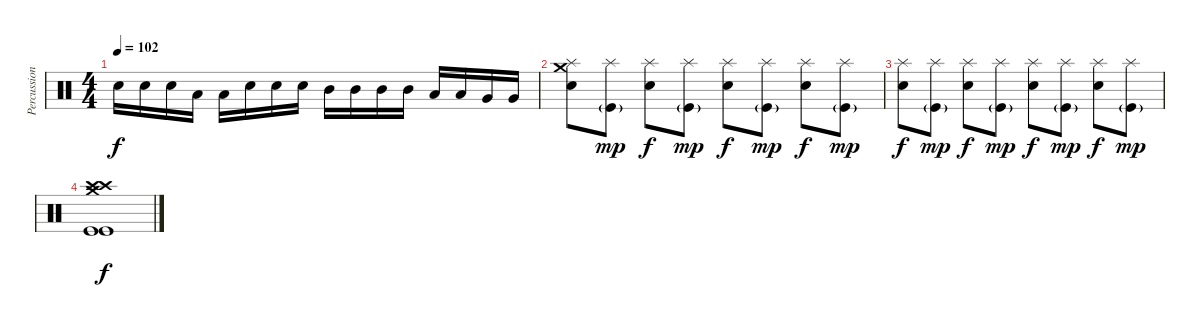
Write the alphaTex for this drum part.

\track ("Percussion" "Percussion") {instrument percussion}
\staff {score}
\articulation defaults
\ts (4 4)
\tempo 102
\clef neutral
\ks c "Snare (hit) 2".16{dy f} "Snare (hit) 2".16 "Snare (hit) 2".16 "Low Tom (hit)".16 "Low Tom (hit)".16 "Snare (hit) 2".16 "Snare (hit) 2".16 "Snare (hit) 2".16 "Mid Tom (hit)".16 "Mid Tom (hit)".16 "Mid Tom (hit)".16 "Mid Tom (hit)".16 "Low Tom (hit)".16 "Low Tom (hit)".16 "Very Low Tom (hit)".16 "Very Low Tom (hit)".16
|
("Splash (hit)" "Snare (hit) 2" "Crash medium (hit)").8 ("Splash (hit)" "Kick (hit)"{g}).8{dy mp} ("Splash (hit)" "Snare (hit) 2").8{dy f} ("Splash (hit)" "Kick (hit)"{g}).8{dy mp} ("Splash (hit)" "Snare (hit) 2").8{dy f} ("Splash (hit)" "Kick (hit)"{g}).8{dy mp} ("Splash (hit)" "Snare (hit) 2").8{dy f} ("Splash (hit)" "Kick (hit)"{g}).8{dy mp} |
("Splash (hit)" "Snare (hit) 2").8{dy f} ("Splash (hit)" "Kick (hit)"{g}).8{dy mp} ("Splash (hit)" "Snare (hit) 2").8{dy f} ("Splash (hit)" "Kick (hit)"{g}).8{dy mp} ("Splash (hit)" "Snare (hit) 2").8{dy f} ("Splash (hit)" "Kick (hit)"{g}).8{dy mp} ("Splash (hit)" "Snare (hit) 2").8{dy f} ("Splash (hit)" "Kick (hit)"{g}).8{dy mp} |
("Crash high (hit)" "Crash high (hit)" "Crash medium (hit)" "Kick (hit)" "Kick (hit)").1{dy f}
